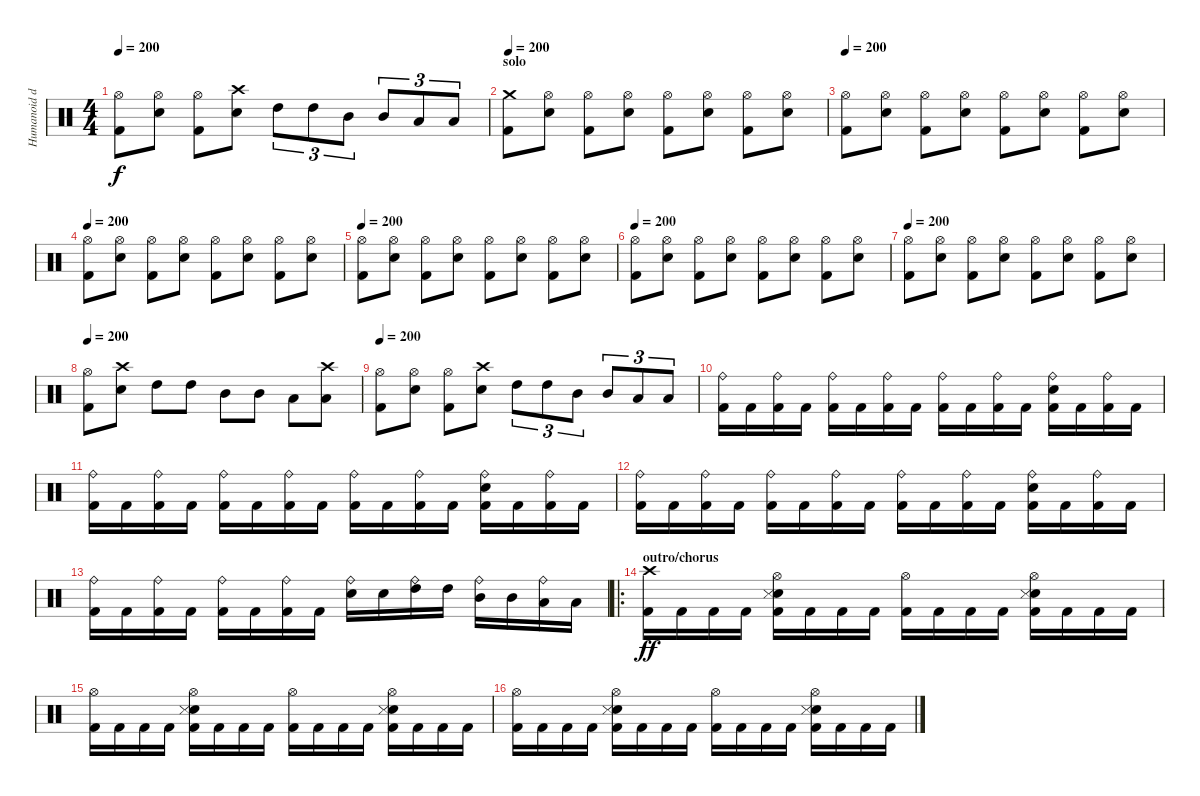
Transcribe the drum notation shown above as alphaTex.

\track ("Humanoid drum machine" "Humanoid d") {instrument percussion}
\staff {score}
\articulation defaults
\ts (4 4)
\tempo 200
\clef neutral
\ks c
("Hi-Hat (open)" "Kick (hit) 2").8{dy f} ("Hi-Hat (open)" "Electric Snare (hit)").8 ("Hi-Hat (open)" "Kick (hit) 2").8 ("Crash high (hit)" "Electric Snare (hit)").8 "High Tom (hit)".8{tu (3 2)} "High Tom (hit)".8{tu (3 2)} "Mid Tom (hit)".8{tu (3 2)} "Mid Tom (hit)".8{tu (3 2)} "Low Tom (hit)".8{tu (3 2)} "Low Tom (hit)".8{tu (3 2)} |
\section ("" "solo")
\tempo 200
("Crash medium (hit)" "Kick (hit) 2").8 ("Hi-Hat (open)" "Electric Snare (hit)").8 ("Hi-Hat (open)" "Kick (hit) 2").8 ("Hi-Hat (open)" "Electric Snare (hit)").8 ("Hi-Hat (open)" "Kick (hit) 2").8 ("Hi-Hat (open)" "Electric Snare (hit)").8 ("Hi-Hat (open)" "Kick (hit) 2").8 ("Hi-Hat (open)" "Electric Snare (hit)").8 |
\tempo 200
("Hi-Hat (open)" "Kick (hit) 2").8 ("Hi-Hat (open)" "Electric Snare (hit)").8 ("Hi-Hat (open)" "Kick (hit) 2").8 ("Hi-Hat (open)" "Electric Snare (hit)").8 ("Hi-Hat (open)" "Kick (hit) 2").8 ("Hi-Hat (open)" "Electric Snare (hit)").8 ("Hi-Hat (open)" "Kick (hit) 2").8 ("Hi-Hat (open)" "Electric Snare (hit)").8 |
\tempo 200
("Hi-Hat (open)" "Kick (hit) 2").8 ("Hi-Hat (open)" "Electric Snare (hit)").8 ("Hi-Hat (open)" "Kick (hit) 2").8 ("Hi-Hat (open)" "Electric Snare (hit)").8 ("Hi-Hat (open)" "Kick (hit) 2").8 ("Hi-Hat (open)" "Electric Snare (hit)").8 ("Hi-Hat (open)" "Kick (hit) 2").8 ("Hi-Hat (open)" "Electric Snare (hit)").8 |
\tempo 200
("Hi-Hat (open)" "Kick (hit) 2").8 ("Hi-Hat (open)" "Electric Snare (hit)").8 ("Hi-Hat (open)" "Kick (hit) 2").8 ("Hi-Hat (open)" "Electric Snare (hit)").8 ("Hi-Hat (open)" "Kick (hit) 2").8 ("Hi-Hat (open)" "Electric Snare (hit)").8 ("Hi-Hat (open)" "Kick (hit) 2").8 ("Hi-Hat (open)" "Electric Snare (hit)").8 |
\tempo 200
("Hi-Hat (open)" "Kick (hit) 2").8 ("Hi-Hat (open)" "Electric Snare (hit)").8 ("Hi-Hat (open)" "Kick (hit) 2").8 ("Hi-Hat (open)" "Electric Snare (hit)").8 ("Hi-Hat (open)" "Kick (hit) 2").8 ("Hi-Hat (open)" "Electric Snare (hit)").8 ("Hi-Hat (open)" "Kick (hit) 2").8 ("Hi-Hat (open)" "Electric Snare (hit)").8 |
\tempo 200
("Hi-Hat (open)" "Kick (hit) 2").8 ("Hi-Hat (open)" "Electric Snare (hit)").8 ("Hi-Hat (open)" "Kick (hit) 2").8 ("Hi-Hat (open)" "Electric Snare (hit)").8 ("Hi-Hat (open)" "Kick (hit) 2").8 ("Hi-Hat (open)" "Electric Snare (hit)").8 ("Hi-Hat (open)" "Kick (hit) 2").8 ("Hi-Hat (open)" "Electric Snare (hit)").8 |
\tempo 200
("Hi-Hat (open)" "Kick (hit) 2").8 ("Crash high (hit)" "Electric Snare (hit)").8 "High Tom (hit)".8 "High Tom (hit)".8 "Mid Tom (hit)".8 "Mid Tom (hit)".8 "Low Tom (hit)".8 ("Crash high (hit)" "Low Tom (hit)").8 |
\tempo 200
("Hi-Hat (open)" "Kick (hit) 2").8 ("Hi-Hat (open)" "Electric Snare (hit)").8 ("Hi-Hat (open)" "Kick (hit) 2").8 ("Crash high (hit)" "Electric Snare (hit)").8 "High Tom (hit)".8{tu (3 2)} "High Tom (hit)".8{tu (3 2)} "Mid Tom (hit)".8{tu (3 2)} "Mid Tom (hit)".8{tu (3 2)} "Low Tom (hit)".8{tu (3 2)} "Low Tom (hit)".8{tu (3 2)} |
("Ride (bell)" "Kick (hit) 2").16 "Kick (hit) 2".16 ("Ride (bell)" "Kick (hit) 2").16 "Kick (hit) 2".16 ("Ride (bell)" "Kick (hit) 2").16 "Kick (hit) 2".16 ("Ride (bell)" "Kick (hit) 2").16 "Kick (hit) 2".16 ("Ride (bell)" "Kick (hit) 2").16 "Kick (hit) 2".16 ("Ride (bell)" "Kick (hit) 2").16 "Kick (hit) 2".16 ("Ride (bell)" "Electric Snare (hit)" "Kick (hit) 2").16 "Kick (hit) 2".16 ("Ride (bell)" "Kick (hit) 2").16 "Kick (hit) 2".16 |
("Ride (bell)" "Kick (hit) 2").16 "Kick (hit) 2".16 ("Ride (bell)" "Kick (hit) 2").16 "Kick (hit) 2".16 ("Ride (bell)" "Kick (hit) 2").16 "Kick (hit) 2".16 ("Ride (bell)" "Kick (hit) 2").16 "Kick (hit) 2".16 ("Ride (bell)" "Kick (hit) 2").16 "Kick (hit) 2".16 ("Ride (bell)" "Kick (hit) 2").16 "Kick (hit) 2".16 ("Ride (bell)" "Electric Snare (hit)" "Kick (hit) 2").16 "Kick (hit) 2".16 ("Ride (bell)" "Kick (hit) 2").16 "Kick (hit) 2".16 |
("Ride (bell)" "Kick (hit) 2").16 "Kick (hit) 2".16 ("Ride (bell)" "Kick (hit) 2").16 "Kick (hit) 2".16 ("Ride (bell)" "Kick (hit) 2").16 "Kick (hit) 2".16 ("Ride (bell)" "Kick (hit) 2").16 "Kick (hit) 2".16 ("Ride (bell)" "Kick (hit) 2").16 "Kick (hit) 2".16 ("Ride (bell)" "Kick (hit) 2").16 "Kick (hit) 2".16 ("Ride (bell)" "Electric Snare (hit)" "Kick (hit) 2").16 "Kick (hit) 2".16 ("Ride (bell)" "Kick (hit) 2").16 "Kick (hit) 2".16 |
("Ride (bell)" "Kick (hit) 2").16 "Kick (hit) 2".16 ("Ride (bell)" "Kick (hit) 2").16 "Kick (hit) 2".16 ("Ride (bell)" "Kick (hit) 2").16 "Kick (hit) 2".16 ("Ride (bell)" "Kick (hit) 2").16 "Kick (hit) 2".16 ("Ride (bell)" "Electric Snare (hit)").16 "Electric Snare (hit)".16 ("Ride (bell)" "High Tom (hit)").16 "High Tom (hit)".16 ("Ride (bell)" "Mid Tom (hit)").16 "Mid Tom (hit)".16 ("Ride (bell)" "Low Tom (hit)").16 "Low Tom (hit)".16 |
\ro
\section ("" "outro/chorus")
("Crash high (hit)" "Kick (hit) 2").16{dy ff} "Kick (hit) 2".16 "Kick (hit) 2".16 "Kick (hit) 2".16 ("Hi-Hat (open)" "Electric Snare (hit)" "Snare (side stick) 3" "Kick (hit) 2").16 "Kick (hit) 2".16 "Kick (hit) 2".16 "Kick (hit) 2".16 ("Hi-Hat (open)" "Kick (hit) 2").16 "Kick (hit) 2".16 "Kick (hit) 2".16 "Kick (hit) 2".16 ("Hi-Hat (open)" "Electric Snare (hit)" "Snare (side stick) 3" "Kick (hit) 2").16 "Kick (hit) 2".16 "Kick (hit) 2".16 "Kick (hit) 2".16 |
("Hi-Hat (open)" "Kick (hit) 2").16 "Kick (hit) 2".16 "Kick (hit) 2".16 "Kick (hit) 2".16 ("Hi-Hat (open)" "Electric Snare (hit)" "Snare (side stick) 3" "Kick (hit) 2").16 "Kick (hit) 2".16 "Kick (hit) 2".16 "Kick (hit) 2".16 ("Hi-Hat (open)" "Kick (hit) 2").16 "Kick (hit) 2".16 "Kick (hit) 2".16 "Kick (hit) 2".16 ("Hi-Hat (open)" "Electric Snare (hit)" "Snare (side stick) 3" "Kick (hit) 2").16 "Kick (hit) 2".16 "Kick (hit) 2".16 "Kick (hit) 2".16 |
("Hi-Hat (open)" "Kick (hit) 2").16 "Kick (hit) 2".16 "Kick (hit) 2".16 "Kick (hit) 2".16 ("Hi-Hat (open)" "Electric Snare (hit)" "Snare (side stick) 3" "Kick (hit) 2").16 "Kick (hit) 2".16 "Kick (hit) 2".16 "Kick (hit) 2".16 ("Hi-Hat (open)" "Kick (hit) 2").16 "Kick (hit) 2".16 "Kick (hit) 2".16 "Kick (hit) 2".16 ("Hi-Hat (open)" "Electric Snare (hit)" "Snare (side stick) 3" "Kick (hit) 2").16 "Kick (hit) 2".16 "Kick (hit) 2".16 "Kick (hit) 2".16
